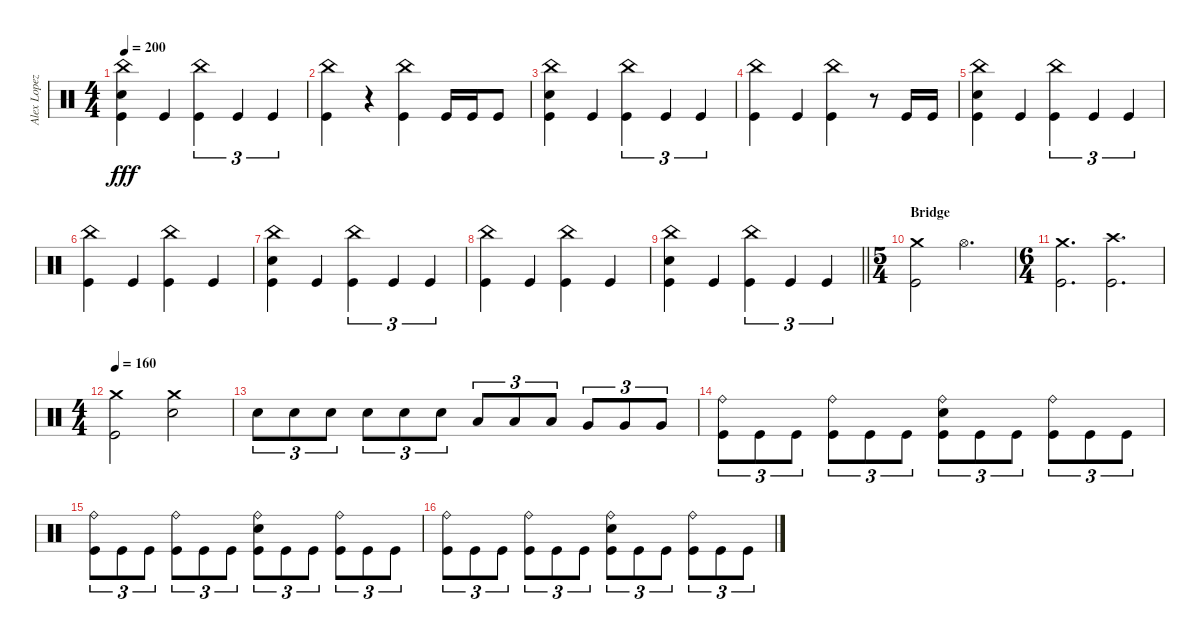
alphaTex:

\track ("Alex Lopez" "Alex Lopez") {instrument percussion}
\staff {score}
\articulation defaults
\ts (4 4)
\tempo 200
\clef neutral
\ks c
("China (hit)" "Snare (hit) 2" "Kick (hit)").4{dy fff} "Kick (hit)".4 ("China (hit)" "Kick (hit)").4{tu (3 2)} "Kick (hit)".4{tu (3 2)} "Kick (hit)".4{tu (3 2)} |
("China (hit)" "Kick (hit)").4 r.4 ("China (hit)" "Kick (hit)").4 "Kick (hit)".16 "Kick (hit)".16 "Kick (hit)".8 |
("China (hit)" "Snare (hit) 2" "Kick (hit)").4 "Kick (hit)".4 ("China (hit)" "Kick (hit)").4{tu (3 2)} "Kick (hit)".4{tu (3 2)} "Kick (hit)".4{tu (3 2)} |
("China (hit)" "Kick (hit)").4 "Kick (hit)".4 ("China (hit)" "Kick (hit)").4 r.8 "Kick (hit)".16 "Kick (hit)".16 |
("China (hit)" "Snare (hit) 2" "Kick (hit)").4 "Kick (hit)".4 ("China (hit)" "Kick (hit)").4{tu (3 2)} "Kick (hit)".4{tu (3 2)} "Kick (hit)".4{tu (3 2)} |
("China (hit)" "Kick (hit)").4 "Kick (hit)".4 ("China (hit)" "Kick (hit)").4 "Kick (hit)".4 |
("China (hit)" "Snare (hit) 2" "Kick (hit)").4 "Kick (hit)".4 ("China (hit)" "Kick (hit)").4{tu (3 2)} "Kick (hit)".4{tu (3 2)} "Kick (hit)".4{tu (3 2)} |
("China (hit)" "Kick (hit)").4 "Kick (hit)".4 ("China (hit)" "Kick (hit)").4 "Kick (hit)".4 |
\barLineRight lightlight
("China (hit)" "Snare (hit) 2" "Kick (hit)").4 "Kick (hit)".4 ("China (hit)" "Kick (hit)").4{tu (3 2)} "Kick (hit)".4{tu (3 2)} "Kick (hit)".4{tu (3 2)} |
\ts (5 4)
\section ("" "Bridge")
("Crash medium (hit)" "Kick (hit)").2 "Hi-Hat (open)".2{d} |
\ts (6 4)
("Crash medium (hit)" "Kick (hit)").2{d} ("Crash high (hit)" "Kick (hit)").2{d} |
\ts (4 4)
\tempo 160
("Crash medium (hit)" "Kick (hit)").2 ("Snare (hit) 2" "Crash medium (hit)").2 |
"Snare (hit) 2".8{tu (3 2)} "Snare (hit) 2".8{tu (3 2)} "Snare (hit) 2".8{tu (3 2)} "Snare (hit) 2".8{tu (3 2)} "Snare (hit) 2".8{tu (3 2)} "Snare (hit) 2".8{tu (3 2)} "Low Tom (hit)".8{tu (3 2)} "Low Tom (hit)".8{tu (3 2)} "Low Tom (hit)".8{tu (3 2)} "Very Low Tom (hit)".8{tu (3 2)} "Very Low Tom (hit)".8{tu (3 2)} "Very Low Tom (hit)".8{tu (3 2)} |
("Ride (bell)" "Kick (hit)").8{tu (3 2)} "Kick (hit)".8{tu (3 2)} "Kick (hit)".8{tu (3 2)} ("Ride (bell)" "Kick (hit)").8{tu (3 2)} "Kick (hit)".8{tu (3 2)} "Kick (hit)".8{tu (3 2)} ("Ride (bell)" "Snare (hit) 2" "Kick (hit)").8{tu (3 2)} "Kick (hit)".8{tu (3 2)} "Kick (hit)".8{tu (3 2)} ("Ride (bell)" "Kick (hit)").8{tu (3 2)} "Kick (hit)".8{tu (3 2)} "Kick (hit)".8{tu (3 2)} |
("Ride (bell)" "Kick (hit)").8{tu (3 2)} "Kick (hit)".8{tu (3 2)} "Kick (hit)".8{tu (3 2)} ("Ride (bell)" "Kick (hit)").8{tu (3 2)} "Kick (hit)".8{tu (3 2)} "Kick (hit)".8{tu (3 2)} ("Ride (bell)" "Snare (hit) 2" "Kick (hit)").8{tu (3 2)} "Kick (hit)".8{tu (3 2)} "Kick (hit)".8{tu (3 2)} ("Ride (bell)" "Kick (hit)").8{tu (3 2)} "Kick (hit)".8{tu (3 2)} "Kick (hit)".8{tu (3 2)} |
("Ride (bell)" "Kick (hit)").8{tu (3 2)} "Kick (hit)".8{tu (3 2)} "Kick (hit)".8{tu (3 2)} ("Ride (bell)" "Kick (hit)").8{tu (3 2)} "Kick (hit)".8{tu (3 2)} "Kick (hit)".8{tu (3 2)} ("Ride (bell)" "Snare (hit) 2" "Kick (hit)").8{tu (3 2)} "Kick (hit)".8{tu (3 2)} "Kick (hit)".8{tu (3 2)} ("Ride (bell)" "Kick (hit)").8{tu (3 2)} "Kick (hit)".8{tu (3 2)} "Kick (hit)".8{tu (3 2)}
